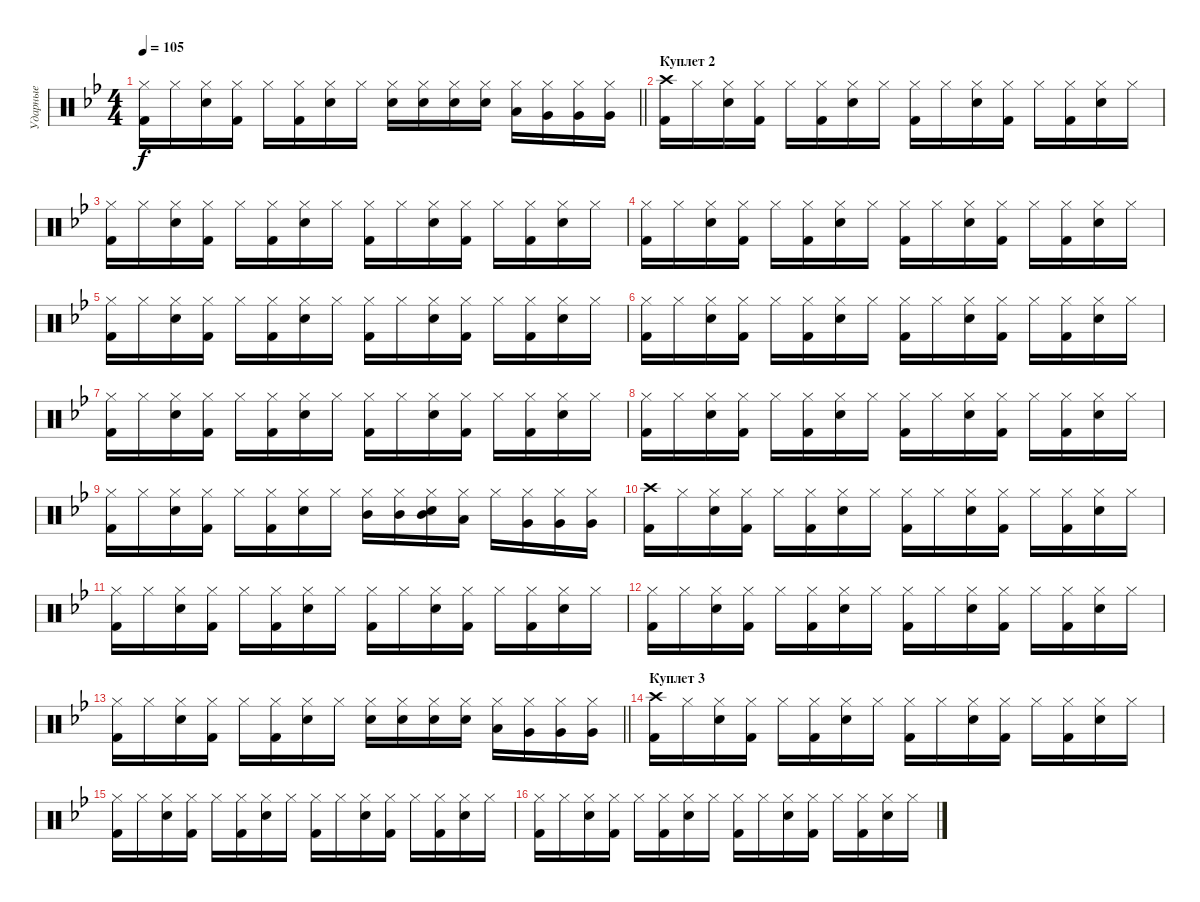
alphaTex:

\track ("Ударные" "Ударные") {instrument percussion}
\staff {score}
\articulation defaults
\ts (4 4)
\tempo 105
\clef neutral
\barLineRight lightlight
\ks gminor
("Hi-Hat (closed)" "Kick (hit) 2").16{dy f} "Hi-Hat (closed)".16 ("Hi-Hat (closed)" "Snare (hit) 2").16 ("Hi-Hat (closed)" "Kick (hit) 2").16 "Hi-Hat (closed)".16 ("Hi-Hat (closed)" "Kick (hit) 2").16 ("Hi-Hat (closed)" "Snare (hit) 2").16 "Hi-Hat (closed)".16 ("Hi-Hat (closed)" "Snare (hit) 2").16 ("Hi-Hat (closed)" "Snare (hit) 2").16 ("Hi-Hat (closed)" "Snare (hit) 2").16 ("Hi-Hat (closed)" "Snare (hit) 2").16 ("Hi-Hat (closed)" "Low Tom (hit)").16 ("Hi-Hat (closed)" "Very Low Tom (hit)").16 ("Hi-Hat (closed)" "Very Low Tom (hit)").16 ("Hi-Hat (closed)" "Very Low Tom (hit)").16 |
\section ("" "Куплет 2")
("Crash high (hit)" "Kick (hit) 2").16 "Hi-Hat (closed)".16 ("Hi-Hat (closed)" "Snare (hit) 2").16 ("Hi-Hat (closed)" "Kick (hit) 2").16 "Hi-Hat (closed)".16 ("Hi-Hat (closed)" "Kick (hit) 2").16 ("Hi-Hat (closed)" "Snare (hit) 2").16 "Hi-Hat (closed)".16 ("Hi-Hat (closed)" "Kick (hit) 2").16 "Hi-Hat (closed)".16 ("Hi-Hat (closed)" "Snare (hit) 2").16 ("Hi-Hat (closed)" "Kick (hit) 2").16 "Hi-Hat (closed)".16 ("Hi-Hat (closed)" "Kick (hit) 2").16 ("Hi-Hat (closed)" "Snare (hit) 2").16 "Hi-Hat (closed)".16 |
("Hi-Hat (closed)" "Kick (hit) 2").16 "Hi-Hat (closed)".16 ("Hi-Hat (closed)" "Snare (hit) 2").16 ("Hi-Hat (closed)" "Kick (hit) 2").16 "Hi-Hat (closed)".16 ("Hi-Hat (closed)" "Kick (hit) 2").16 ("Hi-Hat (closed)" "Snare (hit) 2").16 "Hi-Hat (closed)".16 ("Hi-Hat (closed)" "Kick (hit) 2").16 "Hi-Hat (closed)".16 ("Hi-Hat (closed)" "Snare (hit) 2").16 ("Hi-Hat (closed)" "Kick (hit) 2").16 "Hi-Hat (closed)".16 ("Hi-Hat (closed)" "Kick (hit) 2").16 ("Hi-Hat (closed)" "Snare (hit) 2").16 "Hi-Hat (closed)".16 |
("Hi-Hat (closed)" "Kick (hit) 2").16 "Hi-Hat (closed)".16 ("Hi-Hat (closed)" "Snare (hit) 2").16 ("Hi-Hat (closed)" "Kick (hit) 2").16 "Hi-Hat (closed)".16 ("Hi-Hat (closed)" "Kick (hit) 2").16 ("Hi-Hat (closed)" "Snare (hit) 2").16 "Hi-Hat (closed)".16 ("Hi-Hat (closed)" "Kick (hit) 2").16 "Hi-Hat (closed)".16 ("Hi-Hat (closed)" "Snare (hit) 2").16 ("Hi-Hat (closed)" "Kick (hit) 2").16 "Hi-Hat (closed)".16 ("Hi-Hat (closed)" "Kick (hit) 2").16 ("Hi-Hat (closed)" "Snare (hit) 2").16 "Hi-Hat (closed)".16 |
("Hi-Hat (closed)" "Kick (hit) 2").16 "Hi-Hat (closed)".16 ("Hi-Hat (closed)" "Snare (hit) 2").16 ("Hi-Hat (closed)" "Kick (hit) 2").16 "Hi-Hat (closed)".16 ("Hi-Hat (closed)" "Kick (hit) 2").16 ("Hi-Hat (closed)" "Snare (hit) 2").16 "Hi-Hat (closed)".16 ("Hi-Hat (closed)" "Kick (hit) 2").16 "Hi-Hat (closed)".16 ("Hi-Hat (closed)" "Snare (hit) 2").16 ("Hi-Hat (closed)" "Kick (hit) 2").16 "Hi-Hat (closed)".16 ("Hi-Hat (closed)" "Kick (hit) 2").16 ("Hi-Hat (closed)" "Snare (hit) 2").16 "Hi-Hat (closed)".16 |
("Hi-Hat (closed)" "Kick (hit) 2").16 "Hi-Hat (closed)".16 ("Hi-Hat (closed)" "Snare (hit) 2").16 ("Hi-Hat (closed)" "Kick (hit) 2").16 "Hi-Hat (closed)".16 ("Hi-Hat (closed)" "Kick (hit) 2").16 ("Hi-Hat (closed)" "Snare (hit) 2").16 "Hi-Hat (closed)".16 ("Hi-Hat (closed)" "Kick (hit) 2").16 "Hi-Hat (closed)".16 ("Hi-Hat (closed)" "Snare (hit) 2").16 ("Hi-Hat (closed)" "Kick (hit) 2").16 "Hi-Hat (closed)".16 ("Hi-Hat (closed)" "Kick (hit) 2").16 ("Hi-Hat (closed)" "Snare (hit) 2").16 "Hi-Hat (closed)".16 |
("Hi-Hat (closed)" "Kick (hit) 2").16 "Hi-Hat (closed)".16 ("Hi-Hat (closed)" "Snare (hit) 2").16 ("Hi-Hat (closed)" "Kick (hit) 2").16 "Hi-Hat (closed)".16 ("Hi-Hat (closed)" "Kick (hit) 2").16 ("Hi-Hat (closed)" "Snare (hit) 2").16 "Hi-Hat (closed)".16 ("Hi-Hat (closed)" "Kick (hit) 2").16 "Hi-Hat (closed)".16 ("Hi-Hat (closed)" "Snare (hit) 2").16 ("Hi-Hat (closed)" "Kick (hit) 2").16 "Hi-Hat (closed)".16 ("Hi-Hat (closed)" "Kick (hit) 2").16 ("Hi-Hat (closed)" "Snare (hit) 2").16 "Hi-Hat (closed)".16 |
("Hi-Hat (closed)" "Kick (hit) 2").16 "Hi-Hat (closed)".16 ("Hi-Hat (closed)" "Snare (hit) 2").16 ("Hi-Hat (closed)" "Kick (hit) 2").16 "Hi-Hat (closed)".16 ("Hi-Hat (closed)" "Kick (hit) 2").16 ("Hi-Hat (closed)" "Snare (hit) 2").16 "Hi-Hat (closed)".16 ("Hi-Hat (closed)" "Kick (hit) 2").16 "Hi-Hat (closed)".16 ("Hi-Hat (closed)" "Snare (hit) 2").16 ("Hi-Hat (closed)" "Kick (hit) 2").16 "Hi-Hat (closed)".16 ("Hi-Hat (closed)" "Kick (hit) 2").16 ("Hi-Hat (closed)" "Snare (hit) 2").16 "Hi-Hat (closed)".16 |
("Hi-Hat (closed)" "Kick (hit) 2").16 "Hi-Hat (closed)".16 ("Hi-Hat (closed)" "Snare (hit) 2").16 ("Hi-Hat (closed)" "Kick (hit) 2").16 "Hi-Hat (closed)".16 ("Hi-Hat (closed)" "Kick (hit) 2").16 ("Hi-Hat (closed)" "Snare (hit) 2").16 "Hi-Hat (closed)".16 ("Hi-Hat (closed)" "Mid Tom (hit)").16 ("Hi-Hat (closed)" "Mid Tom (hit)").16 ("Hi-Hat (closed)" "Snare (hit) 2" "Mid Tom (hit)").16 ("Hi-Hat (closed)" "Low Tom (hit)").16 "Hi-Hat (closed)".16 ("Hi-Hat (closed)" "Very Low Tom (hit)").16 ("Hi-Hat (closed)" "Very Low Tom (hit)").16 ("Hi-Hat (closed)" "Very Low Tom (hit)").16 |
("Crash high (hit)" "Kick (hit) 2").16 "Hi-Hat (closed)".16 ("Hi-Hat (closed)" "Snare (hit) 2").16 ("Hi-Hat (closed)" "Kick (hit) 2").16 "Hi-Hat (closed)".16 ("Hi-Hat (closed)" "Kick (hit) 2").16 ("Hi-Hat (closed)" "Snare (hit) 2").16 "Hi-Hat (closed)".16 ("Hi-Hat (closed)" "Kick (hit) 2").16 "Hi-Hat (closed)".16 ("Hi-Hat (closed)" "Snare (hit) 2").16 ("Hi-Hat (closed)" "Kick (hit) 2").16 "Hi-Hat (closed)".16 ("Hi-Hat (closed)" "Kick (hit) 2").16 ("Hi-Hat (closed)" "Snare (hit) 2").16 "Hi-Hat (closed)".16 |
("Hi-Hat (closed)" "Kick (hit) 2").16 "Hi-Hat (closed)".16 ("Hi-Hat (closed)" "Snare (hit) 2").16 ("Hi-Hat (closed)" "Kick (hit) 2").16 "Hi-Hat (closed)".16 ("Hi-Hat (closed)" "Kick (hit) 2").16 ("Hi-Hat (closed)" "Snare (hit) 2").16 "Hi-Hat (closed)".16 ("Hi-Hat (closed)" "Kick (hit) 2").16 "Hi-Hat (closed)".16 ("Hi-Hat (closed)" "Snare (hit) 2").16 ("Hi-Hat (closed)" "Kick (hit) 2").16 "Hi-Hat (closed)".16 ("Hi-Hat (closed)" "Kick (hit) 2").16 ("Hi-Hat (closed)" "Snare (hit) 2").16 "Hi-Hat (closed)".16 |
("Hi-Hat (closed)" "Kick (hit) 2").16 "Hi-Hat (closed)".16 ("Hi-Hat (closed)" "Snare (hit) 2").16 ("Hi-Hat (closed)" "Kick (hit) 2").16 "Hi-Hat (closed)".16 ("Hi-Hat (closed)" "Kick (hit) 2").16 ("Hi-Hat (closed)" "Snare (hit) 2").16 "Hi-Hat (closed)".16 ("Hi-Hat (closed)" "Kick (hit) 2").16 "Hi-Hat (closed)".16 ("Hi-Hat (closed)" "Snare (hit) 2").16 ("Hi-Hat (closed)" "Kick (hit) 2").16 "Hi-Hat (closed)".16 ("Hi-Hat (closed)" "Kick (hit) 2").16 ("Hi-Hat (closed)" "Snare (hit) 2").16 "Hi-Hat (closed)".16 |
\barLineRight lightlight
("Hi-Hat (closed)" "Kick (hit) 2").16 "Hi-Hat (closed)".16 ("Hi-Hat (closed)" "Snare (hit) 2").16 ("Hi-Hat (closed)" "Kick (hit) 2").16 "Hi-Hat (closed)".16 ("Hi-Hat (closed)" "Kick (hit) 2").16 ("Hi-Hat (closed)" "Snare (hit) 2").16 "Hi-Hat (closed)".16 ("Hi-Hat (closed)" "Snare (hit) 2").16 ("Hi-Hat (closed)" "Snare (hit) 2").16 ("Hi-Hat (closed)" "Snare (hit) 2").16 ("Hi-Hat (closed)" "Snare (hit) 2").16 ("Hi-Hat (closed)" "Low Tom (hit)").16 ("Hi-Hat (closed)" "Very Low Tom (hit)").16 ("Hi-Hat (closed)" "Very Low Tom (hit)").16 ("Hi-Hat (closed)" "Very Low Tom (hit)").16 |
\section ("" "Куплет 3")
("Crash high (hit)" "Kick (hit) 2").16 "Hi-Hat (closed)".16 ("Hi-Hat (closed)" "Snare (hit) 2").16 ("Hi-Hat (closed)" "Kick (hit) 2").16 "Hi-Hat (closed)".16 ("Hi-Hat (closed)" "Kick (hit) 2").16 ("Hi-Hat (closed)" "Snare (hit) 2").16 "Hi-Hat (closed)".16 ("Hi-Hat (closed)" "Kick (hit) 2").16 "Hi-Hat (closed)".16 ("Hi-Hat (closed)" "Snare (hit) 2").16 ("Hi-Hat (closed)" "Kick (hit) 2").16 "Hi-Hat (closed)".16 ("Hi-Hat (closed)" "Kick (hit) 2").16 ("Hi-Hat (closed)" "Snare (hit) 2").16 "Hi-Hat (closed)".16 |
("Hi-Hat (closed)" "Kick (hit) 2").16 "Hi-Hat (closed)".16 ("Hi-Hat (closed)" "Snare (hit) 2").16 ("Hi-Hat (closed)" "Kick (hit) 2").16 "Hi-Hat (closed)".16 ("Hi-Hat (closed)" "Kick (hit) 2").16 ("Hi-Hat (closed)" "Snare (hit) 2").16 "Hi-Hat (closed)".16 ("Hi-Hat (closed)" "Kick (hit) 2").16 "Hi-Hat (closed)".16 ("Hi-Hat (closed)" "Snare (hit) 2").16 ("Hi-Hat (closed)" "Kick (hit) 2").16 "Hi-Hat (closed)".16 ("Hi-Hat (closed)" "Kick (hit) 2").16 ("Hi-Hat (closed)" "Snare (hit) 2").16 "Hi-Hat (closed)".16 |
("Hi-Hat (closed)" "Kick (hit) 2").16 "Hi-Hat (closed)".16 ("Hi-Hat (closed)" "Snare (hit) 2").16 ("Hi-Hat (closed)" "Kick (hit) 2").16 "Hi-Hat (closed)".16 ("Hi-Hat (closed)" "Kick (hit) 2").16 ("Hi-Hat (closed)" "Snare (hit) 2").16 "Hi-Hat (closed)".16 ("Hi-Hat (closed)" "Kick (hit) 2").16 "Hi-Hat (closed)".16 ("Hi-Hat (closed)" "Snare (hit) 2").16 ("Hi-Hat (closed)" "Kick (hit) 2").16 "Hi-Hat (closed)".16 ("Hi-Hat (closed)" "Kick (hit) 2").16 ("Hi-Hat (closed)" "Snare (hit) 2").16 "Hi-Hat (closed)".16
